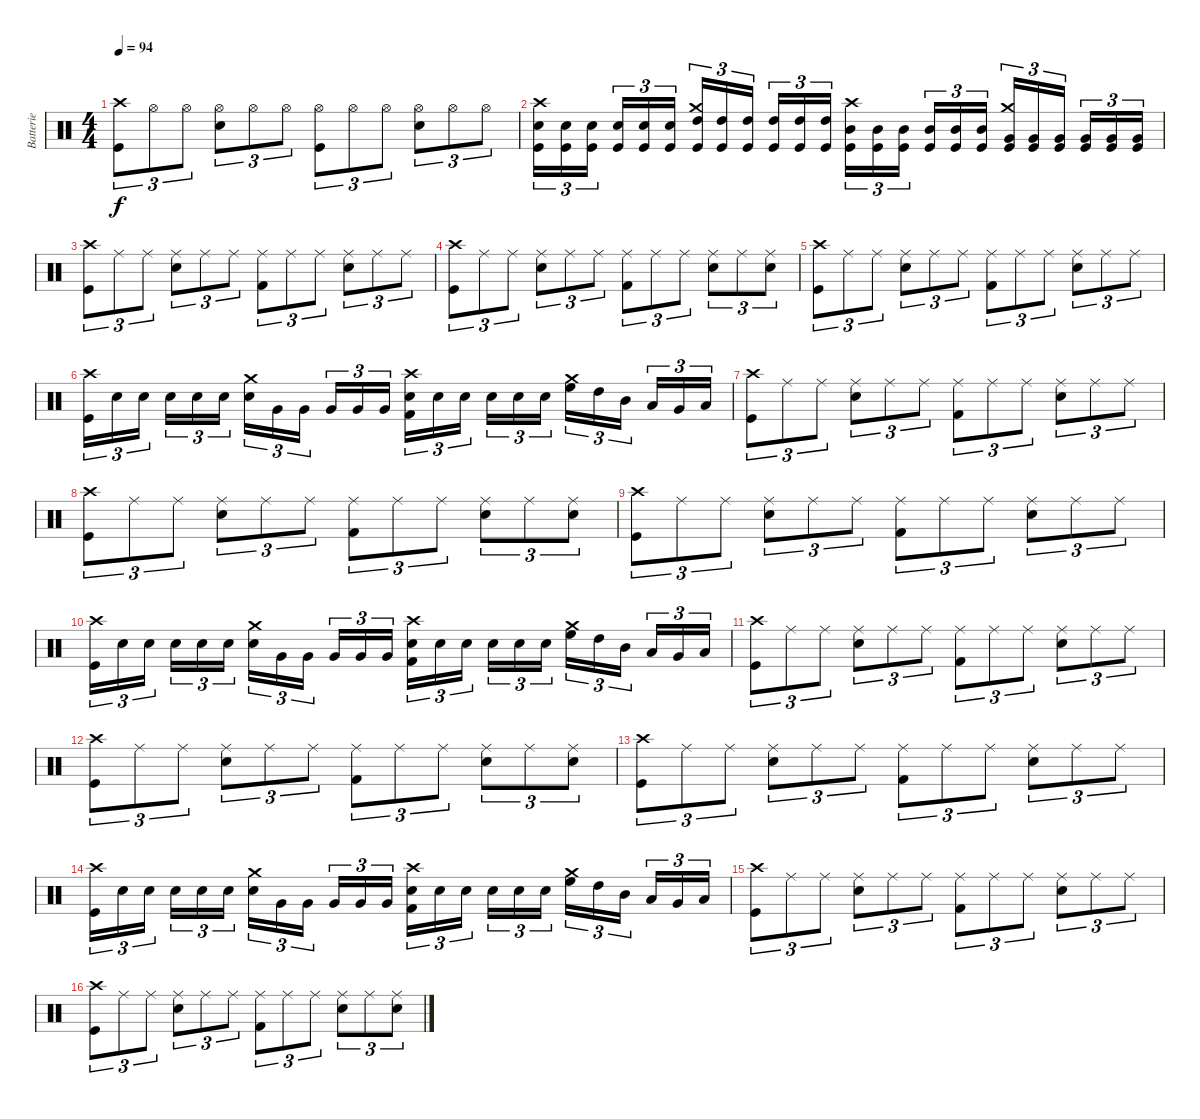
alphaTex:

\track ("Batterie" "Batterie") {instrument percussion}
\staff {score}
\articulation defaults
\ts (4 4)
\tempo 94
\clef neutral
\ks c
("Crash high (hit)" "Kick (hit)").8{tu (3 2) dy f} "Hi-Hat (open)".8{tu (3 2)} "Hi-Hat (open)".8{tu (3 2)} ("Hi-Hat (open)" "Snare (hit) 2").8{tu (3 2)} "Hi-Hat (open)".8{tu (3 2)} "Hi-Hat (open)".8{tu (3 2)} ("Hi-Hat (open)" "Kick (hit)").8{tu (3 2)} "Hi-Hat (open)".8{tu (3 2)} "Hi-Hat (open)".8{tu (3 2)} ("Hi-Hat (open)" "Snare (hit) 2").8{tu (3 2)} "Hi-Hat (open)".8{tu (3 2)} "Hi-Hat (open)".8{tu (3 2)} |
("Crash high (hit)" "Snare (hit) 2" "Kick (hit)").16{tu (3 2)} ("Snare (hit) 2" "Kick (hit)").16{tu (3 2)} ("Snare (hit) 2" "Kick (hit)").16{tu (3 2)} ("Snare (hit) 2" "Kick (hit)").16{tu (3 2)} ("Snare (hit) 2" "Kick (hit)").16{tu (3 2)} ("Snare (hit) 2" "Kick (hit)").16{tu (3 2)} ("Crash medium (hit)" "High Tom (hit)" "Kick (hit)").16{tu (3 2)} ("High Tom (hit)" "Kick (hit)").16{tu (3 2)} ("High Tom (hit)" "Kick (hit)").16{tu (3 2)} ("High Tom (hit)" "Kick (hit)").16{tu (3 2)} ("High Tom (hit)" "Kick (hit)").16{tu (3 2)} ("High Tom (hit)" "Kick (hit)").16{tu (3 2)} ("Crash high (hit)" "Mid Tom (hit)" "Kick (hit)").16{tu (3 2)} ("Mid Tom (hit)" "Kick (hit)").16{tu (3 2)} ("Mid Tom (hit)" "Kick (hit)").16{tu (3 2)} ("Mid Tom (hit)" "Kick (hit)").16{tu (3 2)} ("Mid Tom (hit)" "Kick (hit)").16{tu (3 2)} ("Mid Tom (hit)" "Kick (hit)").16{tu (3 2)} ("Crash medium (hit)" "Very Low Tom (hit)" "Kick (hit)").16{tu (3 2)} ("Very Low Tom (hit)" "Kick (hit)").16{tu (3 2)} ("Very Low Tom (hit)" "Kick (hit)").16{tu (3 2)} ("Very Low Tom (hit)" "Kick (hit)").16{tu (3 2)} ("Very Low Tom (hit)" "Kick (hit)").16{tu (3 2)} ("Very Low Tom (hit)" "Kick (hit)").16{tu (3 2)} |
("Crash high (hit)" "Kick (hit)").8{tu (3 2)} "Ride (middle)".8{tu (3 2)} "Ride (middle)".8{tu (3 2)} ("Ride (middle)" "Snare (hit) 2").8{tu (3 2)} "Ride (middle)".8{tu (3 2)} "Ride (middle)".8{tu (3 2)} ("Ride (middle)" "Kick (hit) 2").8{tu (3 2)} "Ride (middle)".8{tu (3 2)} "Ride (middle)".8{tu (3 2)} ("Ride (middle)" "Snare (hit) 2").8{tu (3 2)} "Ride (middle)".8{tu (3 2)} "Ride (middle)".8{tu (3 2)} |
("Crash high (hit)" "Kick (hit)").8{tu (3 2)} "Ride (middle)".8{tu (3 2)} "Ride (middle)".8{tu (3 2)} ("Ride (middle)" "Snare (hit) 2").8{tu (3 2)} "Ride (middle)".8{tu (3 2)} "Ride (middle)".8{tu (3 2)} ("Ride (middle)" "Kick (hit) 2").8{tu (3 2)} "Ride (middle)".8{tu (3 2)} "Ride (middle)".8{tu (3 2)} ("Ride (middle)" "Snare (hit) 2").8{tu (3 2)} "Ride (middle)".8{tu (3 2)} ("Ride (middle)" "Snare (hit) 2").8{tu (3 2)} |
("Crash high (hit)" "Kick (hit)").8{tu (3 2)} "Ride (middle)".8{tu (3 2)} "Ride (middle)".8{tu (3 2)} ("Ride (middle)" "Snare (hit) 2").8{tu (3 2)} "Ride (middle)".8{tu (3 2)} "Ride (middle)".8{tu (3 2)} ("Ride (middle)" "Kick (hit) 2").8{tu (3 2)} "Ride (middle)".8{tu (3 2)} "Ride (middle)".8{tu (3 2)} ("Ride (middle)" "Snare (hit) 2").8{tu (3 2)} "Ride (middle)".8{tu (3 2)} "Ride (middle)".8{tu (3 2)} |
("Crash high (hit)" "Kick (hit)").16{tu (3 2)} "Snare (hit) 2".16{tu (3 2)} "Snare (hit) 2".16{tu (3 2)} "Snare (hit) 2".16{tu (3 2)} "Snare (hit) 2".16{tu (3 2)} "Snare (hit) 2".16{tu (3 2)} ("Crash medium (hit)" "Snare (hit) 2").16{tu (3 2)} "Very Low Tom (hit)".16{tu (3 2)} "Very Low Tom (hit)".16{tu (3 2)} "Very Low Tom (hit)".16{tu (3 2)} "Very Low Tom (hit)".16{tu (3 2)} "Very Low Tom (hit)".16{tu (3 2)} ("Crash high (hit)" "Snare (hit) 2" "Kick (hit) 2").16{tu (3 2)} "Snare (hit) 2".16{tu (3 2)} "Snare (hit) 2".16{tu (3 2)} "Snare (hit) 2".16{tu (3 2)} "Snare (hit) 2".16{tu (3 2)} "Snare (hit) 2".16{tu (3 2)} ("Crash medium (hit)" "High Floor Tom (hit)").16{tu (3 2)} "High Tom (hit)".16{tu (3 2)} "Mid Tom (hit)".16{tu (3 2)} "Low Tom (hit)".16{tu (3 2)} "Very Low Tom (hit)".16{tu (3 2)} "Low Floor Tom (hit)".16{tu (3 2)} |
("Crash high (hit)" "Kick (hit)").8{tu (3 2)} "Ride (middle)".8{tu (3 2)} "Ride (middle)".8{tu (3 2)} ("Ride (middle)" "Snare (hit) 2").8{tu (3 2)} "Ride (middle)".8{tu (3 2)} "Ride (middle)".8{tu (3 2)} ("Ride (middle)" "Kick (hit) 2").8{tu (3 2)} "Ride (middle)".8{tu (3 2)} "Ride (middle)".8{tu (3 2)} ("Ride (middle)" "Snare (hit) 2").8{tu (3 2)} "Ride (middle)".8{tu (3 2)} "Ride (middle)".8{tu (3 2)} |
("Crash high (hit)" "Kick (hit)").8{tu (3 2)} "Ride (middle)".8{tu (3 2)} "Ride (middle)".8{tu (3 2)} ("Ride (middle)" "Snare (hit) 2").8{tu (3 2)} "Ride (middle)".8{tu (3 2)} "Ride (middle)".8{tu (3 2)} ("Ride (middle)" "Kick (hit) 2").8{tu (3 2)} "Ride (middle)".8{tu (3 2)} "Ride (middle)".8{tu (3 2)} ("Ride (middle)" "Snare (hit) 2").8{tu (3 2)} "Ride (middle)".8{tu (3 2)} ("Ride (middle)" "Snare (hit) 2").8{tu (3 2)} |
("Crash high (hit)" "Kick (hit)").8{tu (3 2)} "Ride (middle)".8{tu (3 2)} "Ride (middle)".8{tu (3 2)} ("Ride (middle)" "Snare (hit) 2").8{tu (3 2)} "Ride (middle)".8{tu (3 2)} "Ride (middle)".8{tu (3 2)} ("Ride (middle)" "Kick (hit) 2").8{tu (3 2)} "Ride (middle)".8{tu (3 2)} "Ride (middle)".8{tu (3 2)} ("Ride (middle)" "Snare (hit) 2").8{tu (3 2)} "Ride (middle)".8{tu (3 2)} "Ride (middle)".8{tu (3 2)} |
("Crash high (hit)" "Kick (hit)").16{tu (3 2)} "Snare (hit) 2".16{tu (3 2)} "Snare (hit) 2".16{tu (3 2)} "Snare (hit) 2".16{tu (3 2)} "Snare (hit) 2".16{tu (3 2)} "Snare (hit) 2".16{tu (3 2)} ("Crash medium (hit)" "Snare (hit) 2").16{tu (3 2)} "Very Low Tom (hit)".16{tu (3 2)} "Very Low Tom (hit)".16{tu (3 2)} "Very Low Tom (hit)".16{tu (3 2)} "Very Low Tom (hit)".16{tu (3 2)} "Very Low Tom (hit)".16{tu (3 2)} ("Crash high (hit)" "Snare (hit) 2" "Kick (hit) 2").16{tu (3 2)} "Snare (hit) 2".16{tu (3 2)} "Snare (hit) 2".16{tu (3 2)} "Snare (hit) 2".16{tu (3 2)} "Snare (hit) 2".16{tu (3 2)} "Snare (hit) 2".16{tu (3 2)} ("Crash medium (hit)" "High Floor Tom (hit)").16{tu (3 2)} "High Tom (hit)".16{tu (3 2)} "Mid Tom (hit)".16{tu (3 2)} "Low Tom (hit)".16{tu (3 2)} "Very Low Tom (hit)".16{tu (3 2)} "Low Floor Tom (hit)".16{tu (3 2)} |
("Crash high (hit)" "Kick (hit)").8{tu (3 2)} "Ride (middle)".8{tu (3 2)} "Ride (middle)".8{tu (3 2)} ("Ride (middle)" "Snare (hit) 2").8{tu (3 2)} "Ride (middle)".8{tu (3 2)} "Ride (middle)".8{tu (3 2)} ("Ride (middle)" "Kick (hit) 2").8{tu (3 2)} "Ride (middle)".8{tu (3 2)} "Ride (middle)".8{tu (3 2)} ("Ride (middle)" "Snare (hit) 2").8{tu (3 2)} "Ride (middle)".8{tu (3 2)} "Ride (middle)".8{tu (3 2)} |
("Crash high (hit)" "Kick (hit)").8{tu (3 2)} "Ride (middle)".8{tu (3 2)} "Ride (middle)".8{tu (3 2)} ("Ride (middle)" "Snare (hit) 2").8{tu (3 2)} "Ride (middle)".8{tu (3 2)} "Ride (middle)".8{tu (3 2)} ("Ride (middle)" "Kick (hit) 2").8{tu (3 2)} "Ride (middle)".8{tu (3 2)} "Ride (middle)".8{tu (3 2)} ("Ride (middle)" "Snare (hit) 2").8{tu (3 2)} "Ride (middle)".8{tu (3 2)} ("Ride (middle)" "Snare (hit) 2").8{tu (3 2)} |
("Crash high (hit)" "Kick (hit)").8{tu (3 2)} "Ride (middle)".8{tu (3 2)} "Ride (middle)".8{tu (3 2)} ("Ride (middle)" "Snare (hit) 2").8{tu (3 2)} "Ride (middle)".8{tu (3 2)} "Ride (middle)".8{tu (3 2)} ("Ride (middle)" "Kick (hit) 2").8{tu (3 2)} "Ride (middle)".8{tu (3 2)} "Ride (middle)".8{tu (3 2)} ("Ride (middle)" "Snare (hit) 2").8{tu (3 2)} "Ride (middle)".8{tu (3 2)} "Ride (middle)".8{tu (3 2)} |
("Crash high (hit)" "Kick (hit)").16{tu (3 2)} "Snare (hit) 2".16{tu (3 2)} "Snare (hit) 2".16{tu (3 2)} "Snare (hit) 2".16{tu (3 2)} "Snare (hit) 2".16{tu (3 2)} "Snare (hit) 2".16{tu (3 2)} ("Crash medium (hit)" "Snare (hit) 2").16{tu (3 2)} "Very Low Tom (hit)".16{tu (3 2)} "Very Low Tom (hit)".16{tu (3 2)} "Very Low Tom (hit)".16{tu (3 2)} "Very Low Tom (hit)".16{tu (3 2)} "Very Low Tom (hit)".16{tu (3 2)} ("Crash high (hit)" "Snare (hit) 2" "Kick (hit) 2").16{tu (3 2)} "Snare (hit) 2".16{tu (3 2)} "Snare (hit) 2".16{tu (3 2)} "Snare (hit) 2".16{tu (3 2)} "Snare (hit) 2".16{tu (3 2)} "Snare (hit) 2".16{tu (3 2)} ("Crash medium (hit)" "High Floor Tom (hit)").16{tu (3 2)} "High Tom (hit)".16{tu (3 2)} "Mid Tom (hit)".16{tu (3 2)} "Low Tom (hit)".16{tu (3 2)} "Very Low Tom (hit)".16{tu (3 2)} "Low Floor Tom (hit)".16{tu (3 2)} |
("Crash high (hit)" "Kick (hit)").8{tu (3 2)} "Ride (middle)".8{tu (3 2)} "Ride (middle)".8{tu (3 2)} ("Ride (middle)" "Snare (hit) 2").8{tu (3 2)} "Ride (middle)".8{tu (3 2)} "Ride (middle)".8{tu (3 2)} ("Ride (middle)" "Kick (hit) 2").8{tu (3 2)} "Ride (middle)".8{tu (3 2)} "Ride (middle)".8{tu (3 2)} ("Ride (middle)" "Snare (hit) 2").8{tu (3 2)} "Ride (middle)".8{tu (3 2)} "Ride (middle)".8{tu (3 2)} |
("Crash high (hit)" "Kick (hit)").8{tu (3 2)} "Ride (middle)".8{tu (3 2)} "Ride (middle)".8{tu (3 2)} ("Ride (middle)" "Snare (hit) 2").8{tu (3 2)} "Ride (middle)".8{tu (3 2)} "Ride (middle)".8{tu (3 2)} ("Ride (middle)" "Kick (hit) 2").8{tu (3 2)} "Ride (middle)".8{tu (3 2)} "Ride (middle)".8{tu (3 2)} ("Ride (middle)" "Snare (hit) 2").8{tu (3 2)} "Ride (middle)".8{tu (3 2)} ("Ride (middle)" "Snare (hit) 2").8{tu (3 2)}
